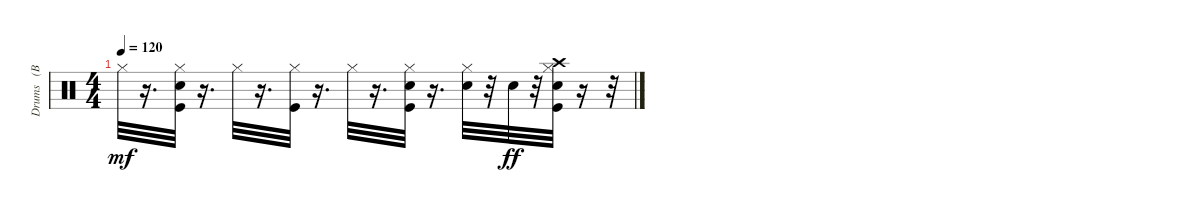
\track ("Drums   (BB)" "Drums   (B") {instrument percussion}
\staff {score}
\articulation defaults
\ts (4 4)
\tempo 120
\clef neutral
\ks c "Hi-Hat (closed)".32{dy mf}
r.16{d} ("Kick (hit)" "Snare (hit) 2" "Hi-Hat (closed)").32 r.16{d} "Hi-Hat (closed)".32 r.16{d} ("Kick (hit)" "Hi-Hat (closed)").32 r.16{d} "Hi-Hat (closed)".32 r.16{d} ("Kick (hit)" "Snare (hit) 2" "Hi-Hat (closed)").32 r.16{d} ("Snare (hit) 2" "Hi-Hat (closed)").32 r.32 "Snare (hit) 2".32{dy ff} r.32 ("Hi-Hat (closed)" "Crash high (hit)" "Kick (hit)" "Snare (hit) 2").32 r.16 r.32
